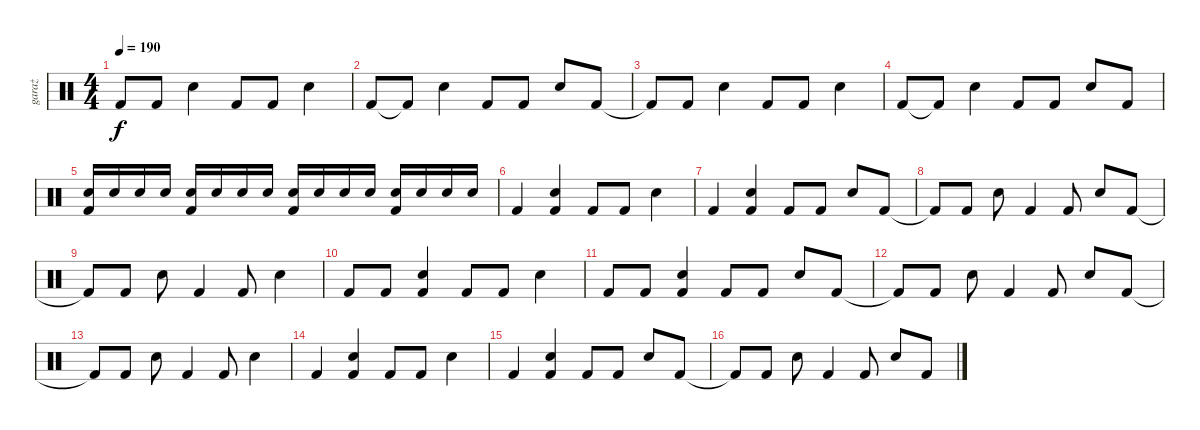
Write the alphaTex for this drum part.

\track ("garaż" "garaż") {instrument percussion}
\staff {score}
\articulation defaults
\ts (4 4)
\tempo 190
\clef neutral
\ks c "Kick (hit) 2"{t}.8{dy f} "Kick (hit) 2".8 "Snare (hit) 2".4 "Kick (hit) 2".8 "Kick (hit) 2".8 "Snare (hit) 2".4
|
"Kick (hit) 2".8 "Kick (hit) 2"{t}.8 "Snare (hit) 2".4 "Kick (hit) 2".8 "Kick (hit) 2".8 "Snare (hit) 2".8 "Kick (hit) 2".8 |
"Kick (hit) 2"{t}.8 "Kick (hit) 2".8 "Snare (hit) 2".4 "Kick (hit) 2".8 "Kick (hit) 2".8 "Snare (hit) 2".4 |
"Kick (hit) 2".8 "Kick (hit) 2"{t}.8 "Snare (hit) 2".4 "Kick (hit) 2".8 "Kick (hit) 2".8 "Snare (hit) 2".8 "Kick (hit) 2".8 |
("Snare (hit) 2" "Kick (hit) 2").16 "Snare (hit) 2".16 "Snare (hit) 2".16 "Snare (hit) 2".16 ("Snare (hit) 2" "Kick (hit) 2").16 "Snare (hit) 2".16 "Snare (hit) 2".16 "Snare (hit) 2".16 ("Snare (hit) 2" "Kick (hit) 2").16 "Snare (hit) 2".16 "Snare (hit) 2".16 "Snare (hit) 2".16 ("Snare (hit) 2" "Kick (hit) 2").16 "Snare (hit) 2".16 "Snare (hit) 2".16 "Snare (hit) 2".16 |
"Kick (hit) 2".4 ("Snare (hit) 2" "Kick (hit) 2").4 "Kick (hit) 2".8 "Kick (hit) 2".8 "Snare (hit) 2".4 |
"Kick (hit) 2".4 ("Snare (hit) 2" "Kick (hit) 2").4 "Kick (hit) 2".8 "Kick (hit) 2".8 "Snare (hit) 2".8 "Kick (hit) 2".8 |
"Kick (hit) 2"{t}.8 "Kick (hit) 2".8 "Snare (hit) 2".8 "Kick (hit) 2".4 "Kick (hit) 2".8 "Snare (hit) 2".8 "Kick (hit) 2".8 |
"Kick (hit) 2"{t}.8 "Kick (hit) 2".8 "Snare (hit) 2".8 "Kick (hit) 2".4 "Kick (hit) 2".8 "Snare (hit) 2".4 |
"Kick (hit) 2".8 "Kick (hit) 2".8 ("Snare (hit) 2" "Kick (hit) 2").4 "Kick (hit) 2".8 "Kick (hit) 2".8 "Snare (hit) 2".4 |
"Kick (hit) 2".8 "Kick (hit) 2".8 ("Snare (hit) 2" "Kick (hit) 2").4 "Kick (hit) 2".8 "Kick (hit) 2".8 "Snare (hit) 2".8 "Kick (hit) 2".8 |
"Kick (hit) 2"{t}.8 "Kick (hit) 2".8 "Snare (hit) 2".8 "Kick (hit) 2".4 "Kick (hit) 2".8 "Snare (hit) 2".8 "Kick (hit) 2".8 |
"Kick (hit) 2"{t}.8 "Kick (hit) 2".8 "Snare (hit) 2".8 "Kick (hit) 2".4 "Kick (hit) 2".8 "Snare (hit) 2".4 |
"Kick (hit) 2".4 ("Snare (hit) 2" "Kick (hit) 2").4 "Kick (hit) 2".8 "Kick (hit) 2".8 "Snare (hit) 2".4 |
"Kick (hit) 2".4 ("Snare (hit) 2" "Kick (hit) 2").4 "Kick (hit) 2".8 "Kick (hit) 2".8 "Snare (hit) 2".8 "Kick (hit) 2".8 |
"Kick (hit) 2"{t}.8 "Kick (hit) 2".8 "Snare (hit) 2".8 "Kick (hit) 2".4 "Kick (hit) 2".8 "Snare (hit) 2".8 "Kick (hit) 2".8
